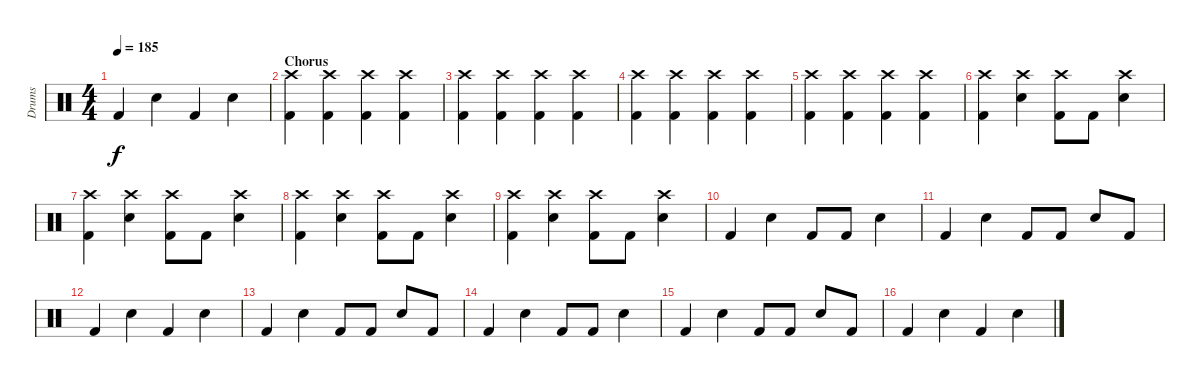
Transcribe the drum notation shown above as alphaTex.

\track ("Drums" "Drums") {instrument percussion}
\staff {score}
\articulation defaults
\ts (4 4)
\tempo 185
\clef neutral
\ks c "Kick (hit) 2".4{dy f} "Electric Snare (hit)".4 "Kick (hit) 2".4 "Electric Snare (hit)".4
|
\section ("" "Chorus")
("Crash high (hit)" "Kick (hit) 2").4 ("Crash high (hit)" "Kick (hit) 2").4 ("Crash high (hit)" "Kick (hit) 2").4 ("Crash high (hit)" "Kick (hit) 2").4 |
("Crash high (hit)" "Kick (hit) 2").4 ("Crash high (hit)" "Kick (hit) 2").4 ("Crash high (hit)" "Kick (hit) 2").4 ("Crash high (hit)" "Kick (hit) 2").4 |
("Crash high (hit)" "Kick (hit) 2").4 ("Crash high (hit)" "Kick (hit) 2").4 ("Crash high (hit)" "Kick (hit) 2").4 ("Crash high (hit)" "Kick (hit) 2").4 |
("Crash high (hit)" "Kick (hit) 2").4 ("Crash high (hit)" "Kick (hit) 2").4 ("Crash high (hit)" "Kick (hit) 2").4 ("Crash high (hit)" "Kick (hit) 2").4 |
("Crash high (hit)" "Kick (hit) 2").4 ("Crash high (hit)" "Electric Snare (hit)").4 ("Crash high (hit)" "Kick (hit) 2").8 "Kick (hit) 2".8 ("Crash high (hit)" "Electric Snare (hit)").4 |
("Crash high (hit)" "Kick (hit) 2").4 ("Crash high (hit)" "Electric Snare (hit)").4 ("Crash high (hit)" "Kick (hit) 2").8 "Kick (hit) 2".8 ("Crash high (hit)" "Electric Snare (hit)").4 |
("Crash high (hit)" "Kick (hit) 2").4 ("Crash high (hit)" "Electric Snare (hit)").4 ("Crash high (hit)" "Kick (hit) 2").8 "Kick (hit) 2".8 ("Crash high (hit)" "Electric Snare (hit)").4 |
("Crash high (hit)" "Kick (hit) 2").4 ("Crash high (hit)" "Electric Snare (hit)").4 ("Crash high (hit)" "Kick (hit) 2").8 "Kick (hit) 2".8 ("Crash high (hit)" "Electric Snare (hit)").4 |
"Kick (hit) 2".4 "Electric Snare (hit)".4 "Kick (hit) 2".8 "Kick (hit) 2".8 "Electric Snare (hit)".4 |
"Kick (hit) 2".4 "Electric Snare (hit)".4 "Kick (hit) 2".8 "Kick (hit) 2".8 "Electric Snare (hit)".8 "Kick (hit) 2".8 |
"Kick (hit) 2".4 "Electric Snare (hit)".4 "Kick (hit) 2".4 "Electric Snare (hit)".4 |
"Kick (hit) 2".4 "Electric Snare (hit)".4 "Kick (hit) 2".8 "Kick (hit) 2".8 "Electric Snare (hit)".8 "Kick (hit) 2".8 |
"Kick (hit) 2".4 "Electric Snare (hit)".4 "Kick (hit) 2".8 "Kick (hit) 2".8 "Electric Snare (hit)".4 |
"Kick (hit) 2".4 "Electric Snare (hit)".4 "Kick (hit) 2".8 "Kick (hit) 2".8 "Electric Snare (hit)".8 "Kick (hit) 2".8 |
"Kick (hit) 2".4 "Electric Snare (hit)".4 "Kick (hit) 2".4 "Electric Snare (hit)".4
